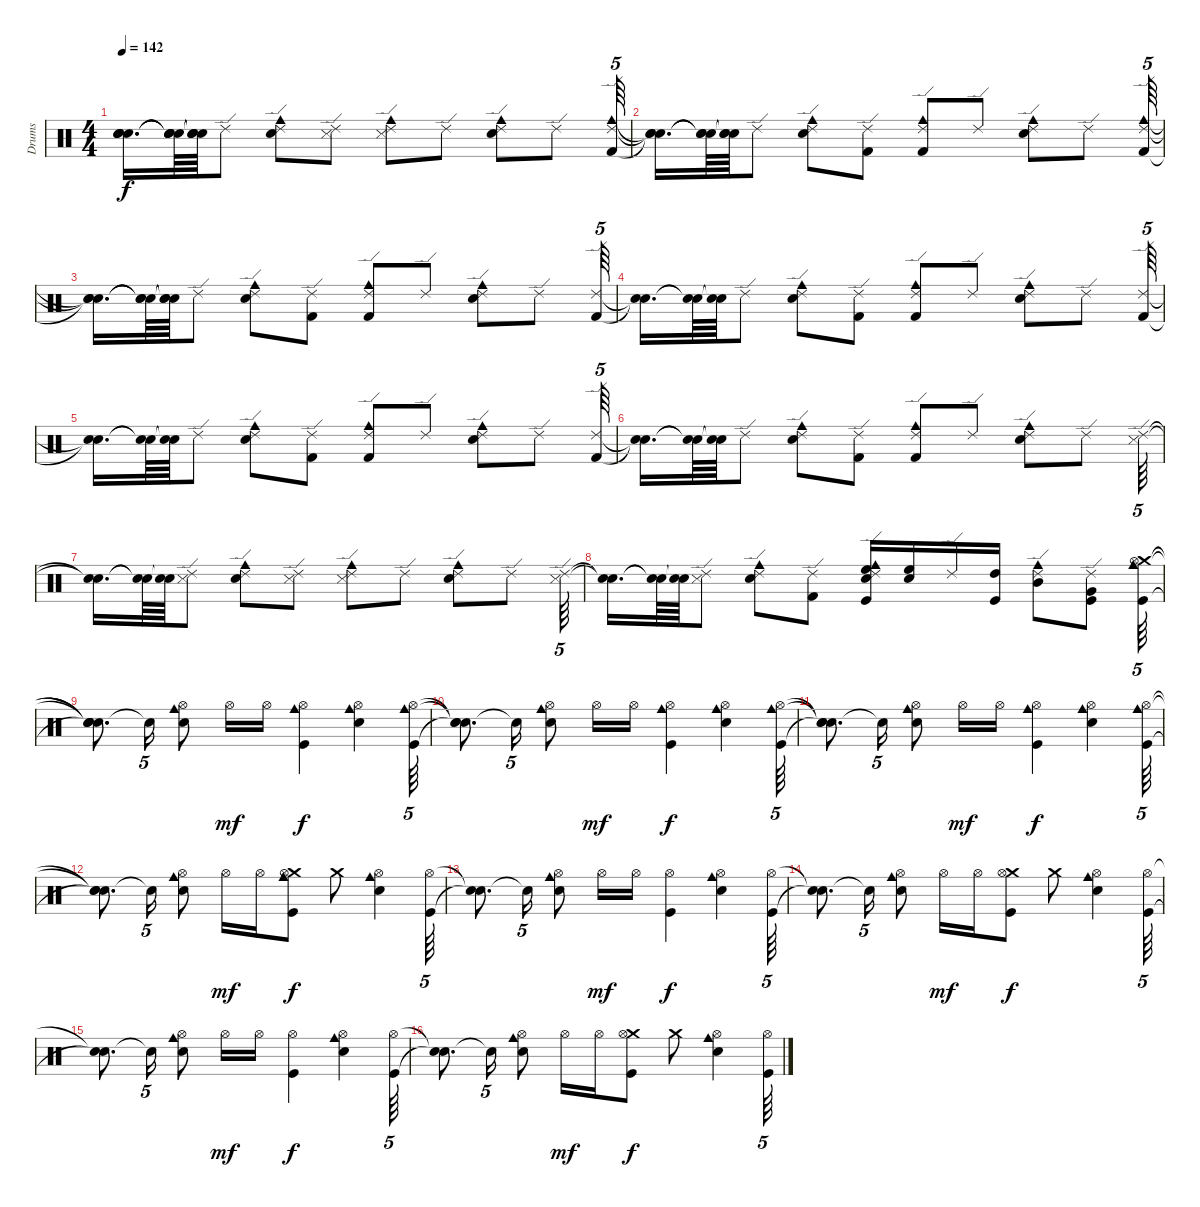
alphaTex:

\track ("Drums" "Drums") {instrument percussion}
\staff {score}
\articulation defaults
\ts (4 4)
\tempo 142
\clef neutral
\ks c
("Snare (hit)"{t} "Snare (hit)"{t} "Snare (hit)"{t} "Snare (hit)"{t}).16{d dy f} ("Snare (hit)"{t} "Snare (hit)"{t} "Snare (hit)"{t} "Snare (hit)"{t}).64 ("Snare (hit)"{t} "Snare (hit)"{t} "Snare (hit)"{t} "Snare (hit)"{t}).64 "Ride (edge) 2".8 ("Cowbell medium (hit)" "Ride (edge) 2" "Snare (hit) 2").8 ("Ride (edge) 2" "Metronome (hit)").8 ("Cowbell medium (hit)" "Ride (edge) 2" "Metronome (hit)").8 "Ride (edge) 2".8 ("Cowbell medium (hit)" "Ride (edge) 2" "Snare (hit) 2").8 "Ride (edge) 2".8 ("Cowbell medium (hit)" "Ride (edge) 2" "Kick (hit) 2").64{tu (5 4)} |
("Snare (hit)"{t} "Snare (hit)"{t} "Snare (hit)"{t}).16{d} ("Snare (hit)"{t} "Snare (hit)"{t} "Snare (hit)"{t}).64 ("Snare (hit)"{t} "Snare (hit)"{t} "Snare (hit)"{t}).64 "Ride (edge) 2".8 ("Cowbell medium (hit)" "Ride (edge) 2" "Snare (hit) 2").8 ("Ride (edge) 2" "Kick (hit) 2").8 ("Cowbell medium (hit)" "Ride (edge) 2" "Kick (hit) 2").8 "Ride (edge) 2".8 ("Cowbell medium (hit)" "Ride (edge) 2" "Snare (hit) 2").8 "Ride (edge) 2".8 ("Cowbell medium (hit)" "Ride (edge) 2" "Kick (hit) 2").64{tu (5 4)} |
("Snare (hit)"{t} "Snare (hit)"{t} "Snare (hit)"{t}).16{d} ("Snare (hit)"{t} "Snare (hit)"{t} "Snare (hit)"{t}).64 ("Snare (hit)"{t} "Snare (hit)"{t} "Snare (hit)"{t}).64 "Ride (edge) 2".8 ("Cowbell medium (hit)" "Ride (edge) 2" "Snare (hit) 2").8 ("Ride (edge) 2" "Kick (hit) 2").8 ("Cowbell medium (hit)" "Ride (edge) 2" "Kick (hit) 2").8 "Ride (edge) 2".8 ("Cowbell medium (hit)" "Ride (edge) 2" "Snare (hit) 2").8 "Ride (edge) 2".8 ("Ride (edge) 2" "Kick (hit) 2").64{tu (5 4)} |
("Snare (hit)"{t} "Snare (hit)"{t}).16{d} ("Snare (hit)"{t} "Snare (hit)"{t}).64 ("Snare (hit)"{t} "Snare (hit)"{t}).64 "Ride (edge) 2".8 ("Cowbell medium (hit)" "Ride (edge) 2" "Snare (hit) 2").8 ("Ride (edge) 2" "Kick (hit) 2").8 ("Cowbell medium (hit)" "Ride (edge) 2" "Kick (hit) 2").8 "Ride (edge) 2".8 ("Cowbell medium (hit)" "Ride (edge) 2" "Snare (hit) 2").8 "Ride (edge) 2".8 ("Ride (edge) 2" "Kick (hit) 2").64{tu (5 4)} |
("Snare (hit)"{t} "Snare (hit)"{t}).16{d} ("Snare (hit)"{t} "Snare (hit)"{t}).64 ("Snare (hit)"{t} "Snare (hit)"{t}).64 "Ride (edge) 2".8 ("Cowbell medium (hit)" "Ride (edge) 2" "Snare (hit) 2").8 ("Ride (edge) 2" "Kick (hit) 2").8 ("Cowbell medium (hit)" "Ride (edge) 2" "Kick (hit) 2").8 "Ride (edge) 2".8 ("Cowbell medium (hit)" "Ride (edge) 2" "Snare (hit) 2").8 "Ride (edge) 2".8 ("Ride (edge) 2" "Kick (hit) 2").64{tu (5 4)} |
("Snare (hit)"{t} "Snare (hit)"{t}).16{d} ("Snare (hit)"{t} "Snare (hit)"{t}).64 ("Snare (hit)"{t} "Snare (hit)"{t}).64 "Ride (edge) 2".8 ("Cowbell medium (hit)" "Ride (edge) 2" "Snare (hit) 2").8 ("Ride (edge) 2" "Kick (hit) 2").8 ("Cowbell medium (hit)" "Ride (edge) 2" "Kick (hit) 2").8 "Ride (edge) 2".8 ("Cowbell medium (hit)" "Ride (edge) 2" "Snare (hit) 2").8 "Ride (edge) 2".8 ("Metronome (hit)" "Ride (edge) 2").64{tu (5 4)} |
("Snare (hit)"{t} "Snare (hit)"{t}).16{d} ("Snare (hit)"{t} "Snare (hit)"{t}).64 ("Snare (hit)"{t} "Snare (hit)"{t}).64 ("Metronome (hit)" "Ride (edge) 2").8 ("Cowbell medium (hit)" "Ride (edge) 2" "Snare (hit) 2").8 ("Ride (edge) 2" "Metronome (hit)").8 ("Cowbell medium (hit)" "Ride (edge) 2" "Metronome (hit)").8 "Ride (edge) 2".8 ("Cowbell medium (hit)" "Ride (edge) 2" "Snare (hit) 2").8 "Ride (edge) 2".8 ("Metronome (hit)" "Ride (edge) 2").64{tu (5 4)} |
("Snare (hit)"{t} "Snare (hit)"{t}).16{d} ("Snare (hit)"{t} "Snare (hit)"{t}).64 ("Snare (hit)"{t} "Snare (hit)"{t}).64 ("Metronome (hit)" "Ride (edge) 2").8 ("Cowbell medium (hit)" "Ride (edge) 2" "Snare (hit) 2").8 ("Ride (edge) 2" "Kick (hit) 2").8 ("High Floor Tom (hit)" "Kick (hit)" "Snare (hit) 2" "Cowbell medium (hit)" "Ride (edge) 2").16 ("High Floor Tom (hit)" "Snare (hit) 2").16 "Ride (edge) 2".16 ("Kick (hit)" "High Tom (hit)").16 ("Mid Tom (hit)" "Cowbell medium (hit)" "Ride (edge) 2").8 ("Kick (hit)" "Very Low Tom (hit)" "Ride (edge) 2").8 ("Cowbell medium (hit)" "Crash medium (hit)" "Hi-Hat (open)" "Kick (hit)").64{tu (5 4)} |
("Snare (hit)"{t} "Snare (hit)"{t} "Snare (hit)"{t} "Snare (hit)"{t}).8{d} "Snare (hit)"{t}.16{tu (5 4)} ("Snare (hit) 2" "Hi-Hat (open)" "Cowbell medium (hit)").8 "Hi-Hat (open)".16{dy mf} "Hi-Hat (open)".16 ("Cowbell medium (hit)" "Kick (hit)" "Hi-Hat (open)").4{dy f} ("Snare (hit) 2" "Hi-Hat (open)" "Cowbell medium (hit)").4 ("Cowbell medium (hit)" "Hi-Hat (open)" "Kick (hit)").64{tu (5 4)} |
("Snare (hit)"{t} "Snare (hit)"{t} "Snare (hit)"{t}).8{d} "Snare (hit)"{t}.16{tu (5 4)} ("Snare (hit) 2" "Hi-Hat (open)" "Cowbell medium (hit)").8 "Hi-Hat (open)".16{dy mf} "Hi-Hat (open)".16 ("Cowbell medium (hit)" "Kick (hit)" "Hi-Hat (open)").4{dy f} ("Snare (hit) 2" "Hi-Hat (open)" "Cowbell medium (hit)").4 ("Hi-Hat (open)" "Kick (hit)" "Cowbell medium (hit)").64{tu (5 4)} |
("Snare (hit)"{t} "Snare (hit)"{t} "Snare (hit)"{t}).8{d} "Snare (hit)"{t}.16{tu (5 4)} ("Snare (hit) 2" "Hi-Hat (open)" "Cowbell medium (hit)").8 "Hi-Hat (open)".16{dy mf} "Hi-Hat (open)".16 ("Kick (hit)" "Hi-Hat (open)" "Cowbell medium (hit)").4{dy f} ("Snare (hit) 2" "Hi-Hat (open)" "Cowbell medium (hit)").4 ("Hi-Hat (open)" "Kick (hit)" "Cowbell medium (hit)").64{tu (5 4)} |
("Snare (hit)"{t} "Snare (hit)"{t} "Snare (hit)"{t}).8{d} "Snare (hit)"{t}.16{tu (5 4)} ("Snare (hit) 2" "Hi-Hat (open)" "Cowbell medium (hit)").8 "Hi-Hat (open)".16{dy mf} "Hi-Hat (open)".16 ("Crash medium (hit)" "Kick (hit)" "Hi-Hat (open)" "Cowbell medium (hit)").8{dy f} "Crash medium (hit)".8 ("Snare (hit) 2" "Hi-Hat (open)" "Cowbell medium (hit)").4 ("Hi-Hat (open)" "Kick (hit)").64{tu (5 4)} |
("Snare (hit)"{t} "Snare (hit)"{t}).8{d} "Snare (hit)"{t}.16{tu (5 4)} ("Snare (hit) 2" "Hi-Hat (open)" "Cowbell medium (hit)").8 "Hi-Hat (open)".16{dy mf} "Hi-Hat (open)".16 ("Kick (hit)" "Hi-Hat (open)").4{dy f} ("Snare (hit) 2" "Hi-Hat (open)" "Cowbell medium (hit)").4 ("Hi-Hat (open)" "Kick (hit)").64{tu (5 4)} |
("Snare (hit)"{t} "Snare (hit)"{t}).8{d} "Snare (hit)"{t}.16{tu (5 4)} ("Snare (hit) 2" "Hi-Hat (open)" "Cowbell medium (hit)").8 "Hi-Hat (open)".16{dy mf} "Hi-Hat (open)".16 ("Crash medium (hit)" "Kick (hit)" "Hi-Hat (open)").8{dy f} "Crash medium (hit)".8 ("Snare (hit) 2" "Hi-Hat (open)" "Cowbell medium (hit)").4 ("Hi-Hat (open)" "Kick (hit)").64{tu (5 4)} |
("Snare (hit)"{t} "Snare (hit)"{t}).8{d} "Snare (hit)"{t}.16{tu (5 4)} ("Snare (hit) 2" "Hi-Hat (open)" "Cowbell medium (hit)").8 "Hi-Hat (open)".16{dy mf} "Hi-Hat (open)".16 ("Kick (hit)" "Hi-Hat (open)").4{dy f} ("Snare (hit) 2" "Hi-Hat (open)" "Cowbell medium (hit)").4 ("Hi-Hat (open)" "Kick (hit)").64{tu (5 4)} |
("Snare (hit)"{t} "Snare (hit)"{t}).8{d} "Snare (hit)"{t}.16{tu (5 4)} ("Snare (hit) 2" "Hi-Hat (open)" "Cowbell medium (hit)").8 "Hi-Hat (open)".16{dy mf} "Hi-Hat (open)".16 ("Crash medium (hit)" "Kick (hit)" "Hi-Hat (open)").8{dy f} "Crash medium (hit)".8 ("Snare (hit) 2" "Hi-Hat (open)" "Cowbell medium (hit)").4 ("Hi-Hat (open)" "Kick (hit)").64{tu (5 4)}
